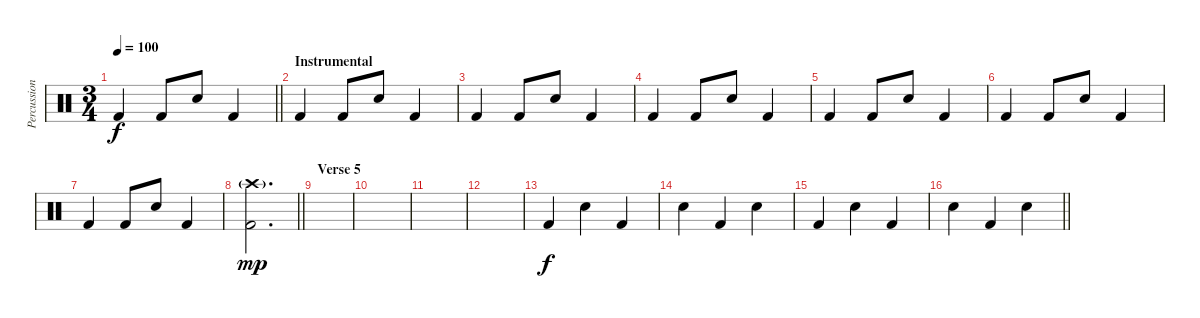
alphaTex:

\track ("Percussion" "Percussion") {instrument percussion}
\staff {score}
\articulation defaults
\ts (3 4)
\tempo 100
\clef neutral
\barLineRight lightlight
\ks c "Kick (hit) 2".4{dy f} "Kick (hit) 2".8 "Snare (hit) 2".8 "Kick (hit) 2".4
|
\section ("" "Instrumental")
"Kick (hit) 2".4 "Kick (hit) 2".8 "Snare (hit) 2".8 "Kick (hit) 2".4 |
"Kick (hit) 2".4 "Kick (hit) 2".8 "Snare (hit) 2".8 "Kick (hit) 2".4 |
"Kick (hit) 2".4 "Kick (hit) 2".8 "Snare (hit) 2".8 "Kick (hit) 2".4 |
"Kick (hit) 2".4 "Kick (hit) 2".8 "Snare (hit) 2".8 "Kick (hit) 2".4 |
"Kick (hit) 2".4 "Kick (hit) 2".8 "Snare (hit) 2".8 "Kick (hit) 2".4 |
"Kick (hit) 2".4 "Kick (hit) 2".8 "Snare (hit) 2".8 "Kick (hit) 2".4 |
\barLineRight lightlight
("Crash high (hit)"{g} "Kick (hit) 2").2{d dy mp} |
\section ("" "Verse 5")
|
|
|
|
"Kick (hit) 2".4{dy f} "Snare (hit) 2".4 "Kick (hit) 2".4 |
"Snare (hit) 2".4 "Kick (hit) 2".4 "Snare (hit) 2".4 |
"Kick (hit) 2".4 "Snare (hit) 2".4 "Kick (hit) 2".4 |
\barLineRight lightlight "Snare (hit) 2".4 "Kick (hit) 2".4 "Snare (hit) 2".4
